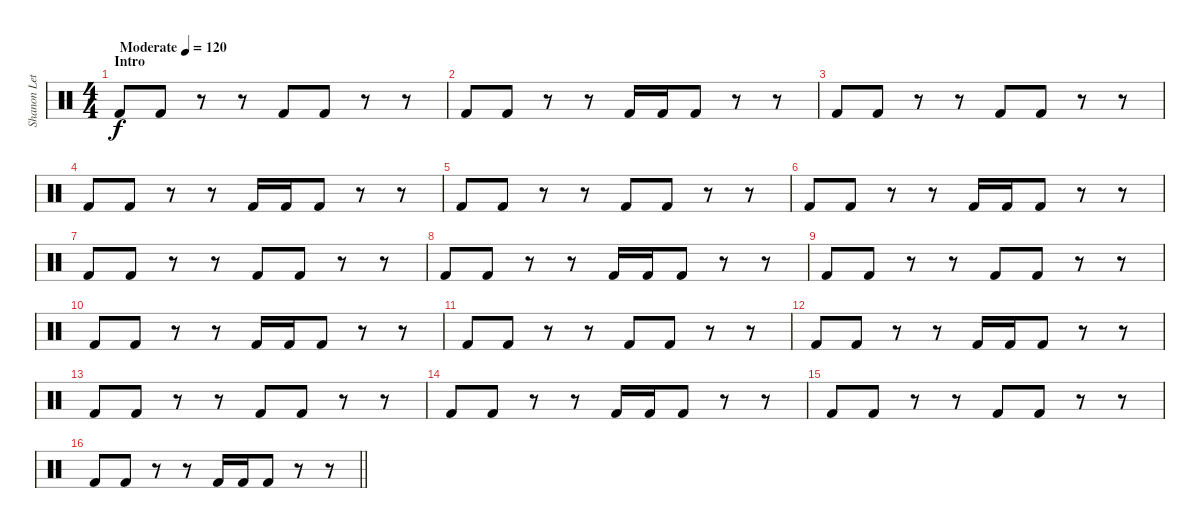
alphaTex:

\track ("Shanon Leto(Drums)" "Shanon Let") {instrument percussion}
\staff {score}
\articulation defaults
\ts (4 4)
\section ("" "Intro")
\tempo (120 "Moderate")
\tempo 95
\tempo (120 "Moderate")
\clef neutral
\ks c "Kick (hit) 2".8{dy f} "Kick (hit) 2".8
r.8 r.8 "Kick (hit) 2".8 "Kick (hit) 2".8 r.8 r.8 |
"Kick (hit) 2".8 "Kick (hit) 2".8 r.8 r.8 "Kick (hit) 2".16 "Kick (hit) 2".16 "Kick (hit) 2".8 r.8 r.8 |
"Kick (hit) 2".8 "Kick (hit) 2".8 r.8 r.8 "Kick (hit) 2".8 "Kick (hit) 2".8 r.8 r.8 |
"Kick (hit) 2".8 "Kick (hit) 2".8 r.8 r.8 "Kick (hit) 2".16 "Kick (hit) 2".16 "Kick (hit) 2".8 r.8 r.8 |
"Kick (hit) 2".8 "Kick (hit) 2".8 r.8 r.8 "Kick (hit) 2".8 "Kick (hit) 2".8 r.8 r.8 |
"Kick (hit) 2".8 "Kick (hit) 2".8 r.8 r.8 "Kick (hit) 2".16 "Kick (hit) 2".16 "Kick (hit) 2".8 r.8 r.8 |
"Kick (hit) 2".8 "Kick (hit) 2".8 r.8 r.8 "Kick (hit) 2".8 "Kick (hit) 2".8 r.8 r.8 |
"Kick (hit) 2".8 "Kick (hit) 2".8 r.8 r.8 "Kick (hit) 2".16 "Kick (hit) 2".16 "Kick (hit) 2".8 r.8 r.8 |
"Kick (hit) 2".8 "Kick (hit) 2".8 r.8 r.8 "Kick (hit) 2".8 "Kick (hit) 2".8 r.8 r.8 |
"Kick (hit) 2".8 "Kick (hit) 2".8 r.8 r.8 "Kick (hit) 2".16 "Kick (hit) 2".16 "Kick (hit) 2".8 r.8 r.8 |
"Kick (hit) 2".8 "Kick (hit) 2".8 r.8 r.8 "Kick (hit) 2".8 "Kick (hit) 2".8 r.8 r.8 |
"Kick (hit) 2".8 "Kick (hit) 2".8 r.8 r.8 "Kick (hit) 2".16 "Kick (hit) 2".16 "Kick (hit) 2".8 r.8 r.8 |
"Kick (hit) 2".8 "Kick (hit) 2".8 r.8 r.8 "Kick (hit) 2".8 "Kick (hit) 2".8 r.8 r.8 |
"Kick (hit) 2".8 "Kick (hit) 2".8 r.8 r.8 "Kick (hit) 2".16 "Kick (hit) 2".16 "Kick (hit) 2".8 r.8 r.8 |
"Kick (hit) 2".8 "Kick (hit) 2".8 r.8 r.8 "Kick (hit) 2".8 "Kick (hit) 2".8 r.8 r.8 |
\barLineRight lightlight "Kick (hit) 2".8 "Kick (hit) 2".8
r.8 r.8 "Kick (hit) 2".16 "Kick (hit) 2".16 "Kick (hit) 2".8 r.8 r.8
